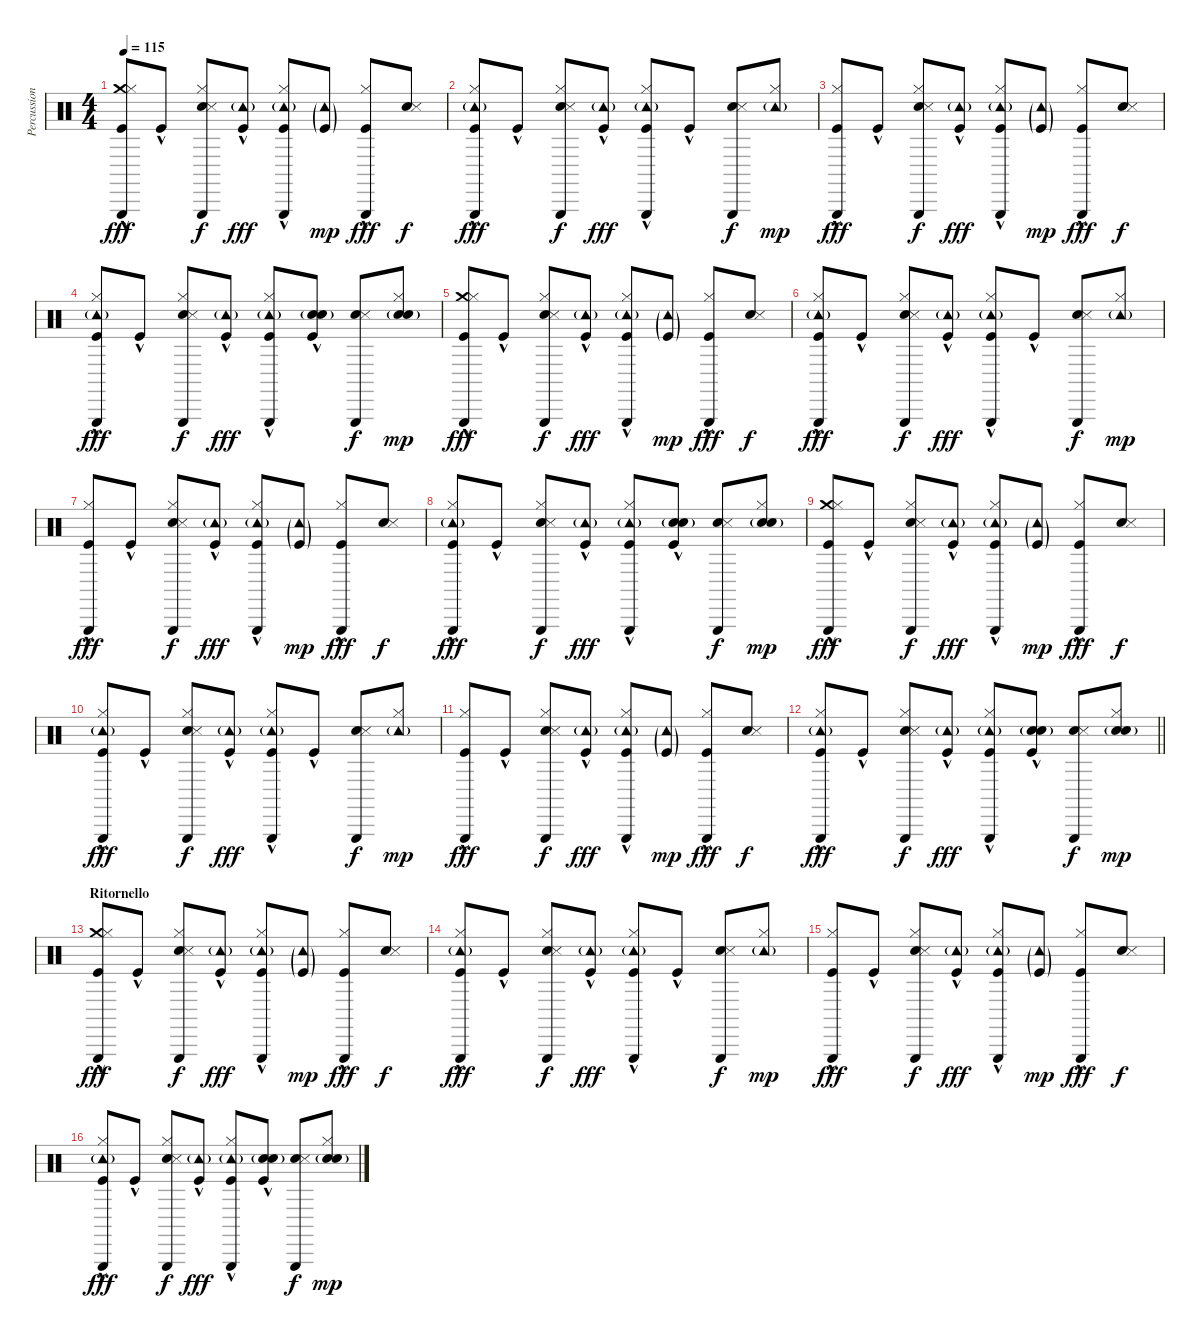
\track ("Percussion" "Percussion") {instrument percussion}
\staff {score}
\articulation defaults
\ts (4 4)
\tempo 115
\clef neutral
\ks c
("Triangle (hit)" "Crash medium (hit)" "Hi-Hat (closed)" "Kick (hit)"{hac}).8{dy fff} "Kick (hit)"{hac}.8 ("Hand Clap (hit)" "Snare (side stick) 3" "Hi-Hat (closed)" "Triangle (hit)").8{dy f} ("Tambourine (hit)"{g} "Kick (hit)"{hac}).8{dy fff} ("Triangle (hit)" "Hi-Hat (closed)" "Tambourine (hit)"{g} "Kick (hit)"{hac}).8 ("Tambourine (hit)"{g} "Kick (hit)"{g}).8{dy mp} ("Triangle (hit)" "Hi-Hat (closed)" "Kick (hit)"{hac}).8{dy fff} ("Hand Clap (hit)" "Snare (side stick) 3").8{dy f} |
("Triangle (hit)" "Hi-Hat (closed)" "Tambourine (hit)"{g} "Kick (hit)"{hac}).8{dy fff} "Kick (hit)"{hac}.8 ("Hand Clap (hit)" "Snare (side stick) 3" "Hi-Hat (closed)" "Triangle (hit)").8{dy f} ("Tambourine (hit)"{g} "Kick (hit)"{hac}).8{dy fff} ("Triangle (hit)" "Hi-Hat (closed)" "Tambourine (hit)"{g} "Kick (hit)"{hac}).8 "Kick (hit)"{hac}.8 ("Hand Clap (hit)" "Snare (side stick) 3" "Triangle (hit)").8{dy f} ("Hi-Hat (closed)" "Tambourine (hit)"{g}).8{dy mp} |
("Triangle (hit)" "Hi-Hat (closed)" "Kick (hit)"{hac}).8{dy fff} "Kick (hit)"{hac}.8 ("Hand Clap (hit)" "Snare (side stick) 3" "Hi-Hat (closed)" "Triangle (hit)").8{dy f} ("Tambourine (hit)"{g} "Kick (hit)"{hac}).8{dy fff} ("Triangle (hit)" "Hi-Hat (closed)" "Tambourine (hit)"{g} "Kick (hit)"{hac}).8 ("Tambourine (hit)"{g} "Kick (hit)"{g}).8{dy mp} ("Triangle (hit)" "Hi-Hat (closed)" "Kick (hit)"{hac}).8{dy fff} ("Hand Clap (hit)" "Snare (side stick) 3").8{dy f} |
("Triangle (hit)" "Hi-Hat (closed)" "Tambourine (hit)"{g} "Kick (hit)"{hac}).8{dy fff} "Kick (hit)"{hac}.8 ("Hand Clap (hit)" "Snare (side stick) 3" "Hi-Hat (closed)" "Triangle (hit)").8{dy f} ("Tambourine (hit)"{g} "Kick (hit)"{hac}).8{dy fff} ("Triangle (hit)" "Hi-Hat (closed)" "Tambourine (hit)"{g} "Kick (hit)"{hac}).8 ("Snare (hit) 2" "Electric Snare (hit)"{g} "Kick (hit)"{hac}).8 ("Hand Clap (hit)" "Snare (side stick) 3" "Triangle (hit)").8{dy f} ("Hi-Hat (closed)" "Snare (hit) 2" "Electric Snare (hit)"{g}).8{dy mp} |
("Triangle (hit)" "Crash medium (hit)" "Hi-Hat (closed)" "Kick (hit)"{hac}).8{dy fff} "Kick (hit)"{hac}.8 ("Hand Clap (hit)" "Snare (side stick) 3" "Hi-Hat (closed)" "Triangle (hit)").8{dy f} ("Tambourine (hit)"{g} "Kick (hit)"{hac}).8{dy fff} ("Triangle (hit)" "Hi-Hat (closed)" "Tambourine (hit)"{g} "Kick (hit)"{hac}).8 ("Tambourine (hit)"{g} "Kick (hit)"{g}).8{dy mp} ("Triangle (hit)" "Hi-Hat (closed)" "Kick (hit)"{hac}).8{dy fff} ("Hand Clap (hit)" "Snare (side stick) 3").8{dy f} |
("Triangle (hit)" "Hi-Hat (closed)" "Tambourine (hit)"{g} "Kick (hit)"{hac}).8{dy fff} "Kick (hit)"{hac}.8 ("Hand Clap (hit)" "Snare (side stick) 3" "Hi-Hat (closed)" "Triangle (hit)").8{dy f} ("Tambourine (hit)"{g} "Kick (hit)"{hac}).8{dy fff} ("Triangle (hit)" "Hi-Hat (closed)" "Tambourine (hit)"{g} "Kick (hit)"{hac}).8 "Kick (hit)"{hac}.8 ("Hand Clap (hit)" "Snare (side stick) 3" "Triangle (hit)").8{dy f} ("Hi-Hat (closed)" "Tambourine (hit)"{g}).8{dy mp} |
("Triangle (hit)" "Hi-Hat (closed)" "Kick (hit)"{hac}).8{dy fff} "Kick (hit)"{hac}.8 ("Hand Clap (hit)" "Snare (side stick) 3" "Hi-Hat (closed)" "Triangle (hit)").8{dy f} ("Tambourine (hit)"{g} "Kick (hit)"{hac}).8{dy fff} ("Triangle (hit)" "Hi-Hat (closed)" "Tambourine (hit)"{g} "Kick (hit)"{hac}).8 ("Tambourine (hit)"{g} "Kick (hit)"{g}).8{dy mp} ("Triangle (hit)" "Hi-Hat (closed)" "Kick (hit)"{hac}).8{dy fff} ("Hand Clap (hit)" "Snare (side stick) 3").8{dy f} |
("Triangle (hit)" "Hi-Hat (closed)" "Tambourine (hit)"{g} "Kick (hit)"{hac}).8{dy fff} "Kick (hit)"{hac}.8 ("Hand Clap (hit)" "Snare (side stick) 3" "Hi-Hat (closed)" "Triangle (hit)").8{dy f} ("Tambourine (hit)"{g} "Kick (hit)"{hac}).8{dy fff} ("Triangle (hit)" "Hi-Hat (closed)" "Tambourine (hit)"{g} "Kick (hit)"{hac}).8 ("Snare (hit) 2" "Electric Snare (hit)"{g} "Kick (hit)"{hac}).8 ("Hand Clap (hit)" "Snare (side stick) 3" "Triangle (hit)").8{dy f} ("Hi-Hat (closed)" "Snare (hit) 2" "Electric Snare (hit)"{g}).8{dy mp} |
("Triangle (hit)" "Crash medium (hit)" "Hi-Hat (closed)" "Kick (hit)"{hac}).8{dy fff} "Kick (hit)"{hac}.8 ("Hand Clap (hit)" "Snare (side stick) 3" "Hi-Hat (closed)" "Triangle (hit)").8{dy f} ("Tambourine (hit)"{g} "Kick (hit)"{hac}).8{dy fff} ("Triangle (hit)" "Hi-Hat (closed)" "Tambourine (hit)"{g} "Kick (hit)"{hac}).8 ("Tambourine (hit)"{g} "Kick (hit)"{g}).8{dy mp} ("Triangle (hit)" "Hi-Hat (closed)" "Kick (hit)"{hac}).8{dy fff} ("Hand Clap (hit)" "Snare (side stick) 3").8{dy f} |
("Triangle (hit)" "Hi-Hat (closed)" "Tambourine (hit)"{g} "Kick (hit)"{hac}).8{dy fff} "Kick (hit)"{hac}.8 ("Hand Clap (hit)" "Snare (side stick) 3" "Hi-Hat (closed)" "Triangle (hit)").8{dy f} ("Tambourine (hit)"{g} "Kick (hit)"{hac}).8{dy fff} ("Triangle (hit)" "Hi-Hat (closed)" "Tambourine (hit)"{g} "Kick (hit)"{hac}).8 "Kick (hit)"{hac}.8 ("Hand Clap (hit)" "Snare (side stick) 3" "Triangle (hit)").8{dy f} ("Hi-Hat (closed)" "Tambourine (hit)"{g}).8{dy mp} |
("Triangle (hit)" "Hi-Hat (closed)" "Kick (hit)"{hac}).8{dy fff} "Kick (hit)"{hac}.8 ("Hand Clap (hit)" "Snare (side stick) 3" "Hi-Hat (closed)" "Triangle (hit)").8{dy f} ("Tambourine (hit)"{g} "Kick (hit)"{hac}).8{dy fff} ("Triangle (hit)" "Hi-Hat (closed)" "Tambourine (hit)"{g} "Kick (hit)"{hac}).8 ("Tambourine (hit)"{g} "Kick (hit)"{g}).8{dy mp} ("Triangle (hit)" "Hi-Hat (closed)" "Kick (hit)"{hac}).8{dy fff} ("Hand Clap (hit)" "Snare (side stick) 3").8{dy f} |
\barLineRight lightlight
("Triangle (hit)" "Hi-Hat (closed)" "Tambourine (hit)"{g} "Kick (hit)"{hac}).8{dy fff} "Kick (hit)"{hac}.8 ("Hand Clap (hit)" "Snare (side stick) 3" "Hi-Hat (closed)" "Triangle (hit)").8{dy f} ("Tambourine (hit)"{g} "Kick (hit)"{hac}).8{dy fff} ("Triangle (hit)" "Hi-Hat (closed)" "Tambourine (hit)"{g} "Kick (hit)"{hac}).8 ("Snare (hit) 2" "Electric Snare (hit)"{g} "Kick (hit)"{hac}).8 ("Hand Clap (hit)" "Snare (side stick) 3" "Triangle (hit)").8{dy f} ("Hi-Hat (closed)" "Snare (hit) 2" "Electric Snare (hit)"{g}).8{dy mp} |
\section ("" "Ritornello")
("Triangle (hit)" "Crash medium (hit)" "Hi-Hat (closed)" "Kick (hit)"{hac}).8{dy fff} "Kick (hit)"{hac}.8 ("Hand Clap (hit)" "Snare (side stick) 3" "Hi-Hat (closed)" "Triangle (hit)").8{dy f} ("Tambourine (hit)"{g} "Kick (hit)"{hac}).8{dy fff} ("Triangle (hit)" "Hi-Hat (closed)" "Tambourine (hit)"{g} "Kick (hit)"{hac}).8 ("Tambourine (hit)"{g} "Kick (hit)"{g}).8{dy mp} ("Triangle (hit)" "Hi-Hat (closed)" "Kick (hit)"{hac}).8{dy fff} ("Hand Clap (hit)" "Snare (side stick) 3").8{dy f} |
("Triangle (hit)" "Hi-Hat (closed)" "Tambourine (hit)"{g} "Kick (hit)"{hac}).8{dy fff} "Kick (hit)"{hac}.8 ("Hand Clap (hit)" "Snare (side stick) 3" "Hi-Hat (closed)" "Triangle (hit)").8{dy f} ("Tambourine (hit)"{g} "Kick (hit)"{hac}).8{dy fff} ("Triangle (hit)" "Hi-Hat (closed)" "Tambourine (hit)"{g} "Kick (hit)"{hac}).8 "Kick (hit)"{hac}.8 ("Hand Clap (hit)" "Snare (side stick) 3" "Triangle (hit)").8{dy f} ("Hi-Hat (closed)" "Tambourine (hit)"{g}).8{dy mp} |
("Triangle (hit)" "Hi-Hat (closed)" "Kick (hit)"{hac}).8{dy fff} "Kick (hit)"{hac}.8 ("Hand Clap (hit)" "Snare (side stick) 3" "Hi-Hat (closed)" "Triangle (hit)").8{dy f} ("Tambourine (hit)"{g} "Kick (hit)"{hac}).8{dy fff} ("Triangle (hit)" "Hi-Hat (closed)" "Tambourine (hit)"{g} "Kick (hit)"{hac}).8 ("Tambourine (hit)"{g} "Kick (hit)"{g}).8{dy mp} ("Triangle (hit)" "Hi-Hat (closed)" "Kick (hit)"{hac}).8{dy fff} ("Hand Clap (hit)" "Snare (side stick) 3").8{dy f} |
("Triangle (hit)" "Hi-Hat (closed)" "Tambourine (hit)"{g} "Kick (hit)"{hac}).8{dy fff} "Kick (hit)"{hac}.8 ("Hand Clap (hit)" "Snare (side stick) 3" "Hi-Hat (closed)" "Triangle (hit)").8{dy f} ("Tambourine (hit)"{g} "Kick (hit)"{hac}).8{dy fff} ("Triangle (hit)" "Hi-Hat (closed)" "Tambourine (hit)"{g} "Kick (hit)"{hac}).8 ("Snare (hit) 2" "Electric Snare (hit)"{g} "Kick (hit)"{hac}).8 ("Hand Clap (hit)" "Snare (side stick) 3" "Triangle (hit)").8{dy f} ("Hi-Hat (closed)" "Snare (hit) 2" "Electric Snare (hit)"{g}).8{dy mp}
